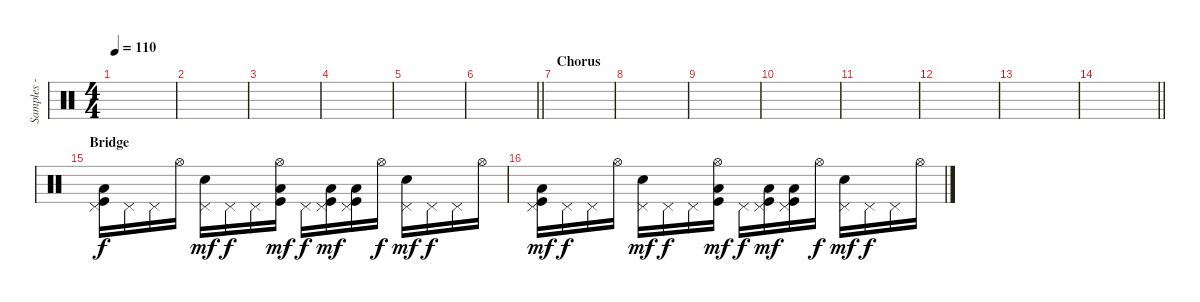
\track ("Samples - Joe Hahn" "Samples - ") {instrument percussion}
\staff {score}
\articulation defaults
\ts (4 4)
\tempo 110
\clef neutral
\ks c
|
|
|
|
|
\barLineRight lightlight
|
\section ("" "Chorus")
|
|
|
|
|
|
|
\barLineRight lightlight
|
\section ("" "Bridge")
("Pedal Hi-Hat (hit)" "Low Tom (hit)" "Kick (hit)").16 "Pedal Hi-Hat (hit)".16{dy f} "Pedal Hi-Hat (hit)".16 "Hi-Hat (open)".16 ("Pedal Hi-Hat (hit)" "Electric Snare (hit)").16{dy mf} "Pedal Hi-Hat (hit)".16{dy f} "Pedal Hi-Hat (hit)".16 ("Hi-Hat (open)" "Low Tom (hit)" "Kick (hit)").16{dy mf} "Pedal Hi-Hat (hit)".16{dy f} ("Pedal Hi-Hat (hit)" "Low Tom (hit)" "Kick (hit)").16{dy mf} ("Pedal Hi-Hat (hit)" "Low Tom (hit)" "Kick (hit)").16 "Hi-Hat (open)".16{dy f} ("Pedal Hi-Hat (hit)" "Electric Snare (hit)").16{dy mf} "Pedal Hi-Hat (hit)".16{dy f} "Pedal Hi-Hat (hit)".16 "Hi-Hat (open)".16 |
("Pedal Hi-Hat (hit)" "Low Tom (hit)" "Kick (hit)").16{dy mf} "Pedal Hi-Hat (hit)".16{dy f} "Pedal Hi-Hat (hit)".16 "Hi-Hat (open)".16 ("Pedal Hi-Hat (hit)" "Electric Snare (hit)").16{dy mf} "Pedal Hi-Hat (hit)".16{dy f} "Pedal Hi-Hat (hit)".16 ("Hi-Hat (open)" "Low Tom (hit)" "Kick (hit)").16{dy mf} "Pedal Hi-Hat (hit)".16{dy f} ("Pedal Hi-Hat (hit)" "Low Tom (hit)" "Kick (hit)").16{dy mf} ("Pedal Hi-Hat (hit)" "Low Tom (hit)" "Kick (hit)").16 "Hi-Hat (open)".16{dy f} ("Pedal Hi-Hat (hit)" "Electric Snare (hit)").16{dy mf} "Pedal Hi-Hat (hit)".16{dy f} "Pedal Hi-Hat (hit)".16 "Hi-Hat (open)".16
